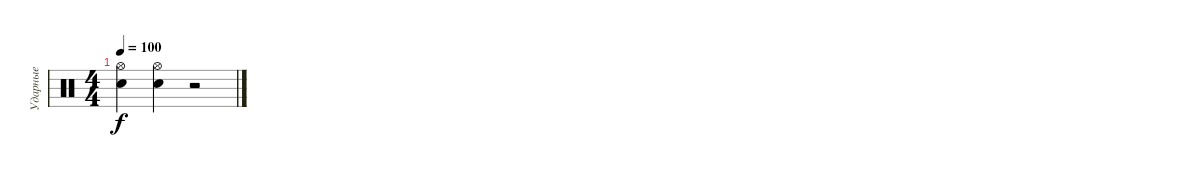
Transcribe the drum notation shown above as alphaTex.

\track ("Ударные" "Ударные") {instrument percussion}
\staff {score}
\articulation defaults
\ts (4 4)
\tempo 100
\clef neutral
\ks c
("Electric Snare (hit)" "Hi-Hat (open)").4{dy f} ("Electric Snare (hit)" "Hi-Hat (open)").4 r.2
